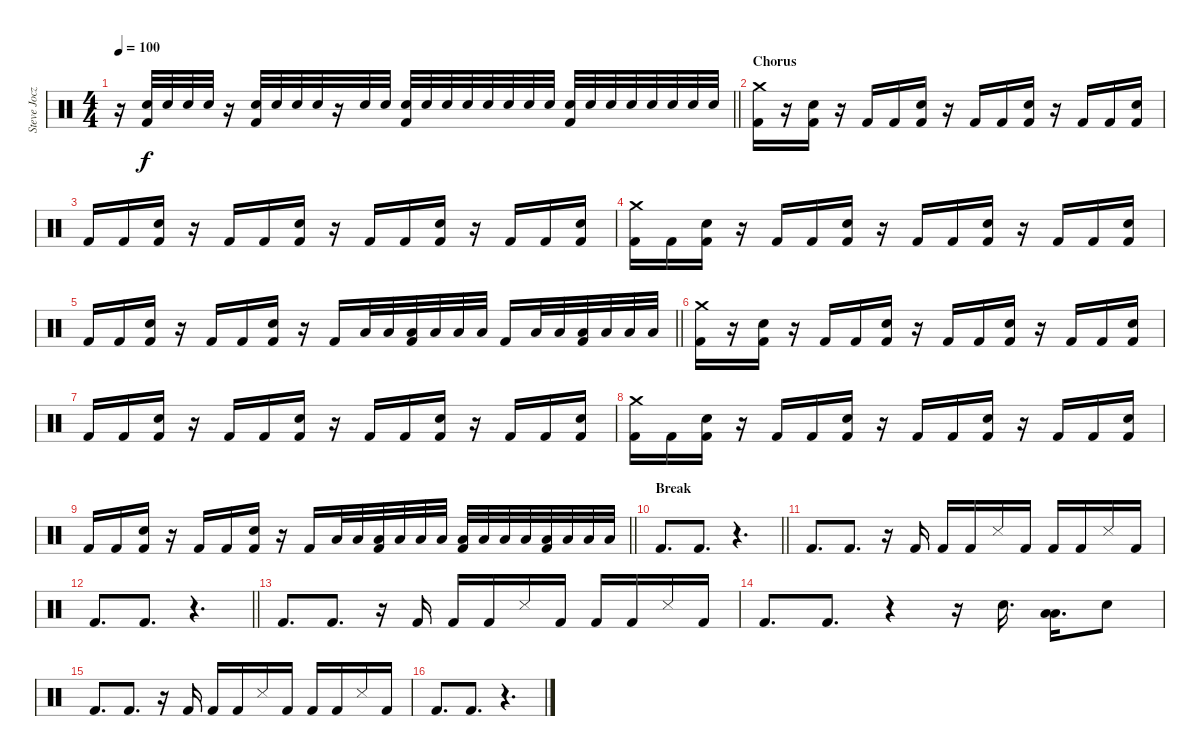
\track ("Steve Jocz" "Steve Jocz") {instrument percussion}
\staff {score}
\articulation defaults
\ts (4 4)
\tempo 100
\clef neutral
\barLineRight lightlight
\ks c
r.16{dy f} ("Snare (hit) 2" "Kick (hit) 2").32 "Snare (hit) 2".32 "Snare (hit) 2".32 "Snare (hit) 2".32 r.16 ("Snare (hit) 2" "Kick (hit) 2").32 "Snare (hit) 2".32 "Snare (hit) 2".32 "Snare (hit) 2".32 r.16 "Snare (hit) 2".32 "Snare (hit) 2".32 ("Snare (hit) 2" "Kick (hit) 2").32 "Snare (hit) 2".32 "Snare (hit) 2".32 "Snare (hit) 2".32 "Snare (hit) 2".32 "Snare (hit) 2".32 "Snare (hit) 2".32 "Snare (hit) 2".32 ("Snare (hit) 2" "Kick (hit) 2").32 "Snare (hit) 2".32 "Snare (hit) 2".32 "Snare (hit) 2".32 "Snare (hit) 2".32 "Snare (hit) 2".32 "Snare (hit) 2".32 "Snare (hit) 2".32 |
\section ("" "Chorus")
("Crash medium (hit)" "Kick (hit) 2").16 r.16 ("Snare (hit) 2" "Kick (hit) 2").16 r.16 "Kick (hit) 2".16 "Kick (hit) 2".16 ("Snare (hit) 2" "Kick (hit) 2").16 r.16 "Kick (hit) 2".16 "Kick (hit) 2".16 ("Snare (hit) 2" "Kick (hit) 2").16 r.16 "Kick (hit) 2".16 "Kick (hit) 2".16 ("Snare (hit) 2" "Kick (hit) 2").16 |
"Kick (hit) 2".16 "Kick (hit) 2".16 ("Snare (hit) 2" "Kick (hit) 2").16 r.16 "Kick (hit) 2".16 "Kick (hit) 2".16 ("Snare (hit) 2" "Kick (hit) 2").16 r.16 "Kick (hit) 2".16 "Kick (hit) 2".16 ("Snare (hit) 2" "Kick (hit) 2").16 r.16 "Kick (hit) 2".16 "Kick (hit) 2".16 ("Snare (hit) 2" "Kick (hit) 2").16 |
("Crash medium (hit)" "Kick (hit) 2").16 "Kick (hit) 2".16 ("Snare (hit) 2" "Kick (hit) 2").16 r.16 "Kick (hit) 2".16 "Kick (hit) 2".16 ("Snare (hit) 2" "Kick (hit) 2").16 r.16 "Kick (hit) 2".16 "Kick (hit) 2".16 ("Snare (hit) 2" "Kick (hit) 2").16 r.16 "Kick (hit) 2".16 "Kick (hit) 2".16 ("Snare (hit) 2" "Kick (hit) 2").16 |
\barLineRight lightlight "Kick (hit) 2".16 "Kick (hit) 2".16
("Snare (hit) 2" "Kick (hit) 2").16 r.16 "Kick (hit) 2".16 "Kick (hit) 2".16 ("Snare (hit) 2" "Kick (hit) 2").16 r.16 "Kick (hit) 2".16 "Low Tom (hit)".32 "Low Tom (hit)".32 ("Low Tom (hit)" "Kick (hit) 2").32 "Low Tom (hit)".32 "Low Tom (hit)".32 "Low Tom (hit)".32 "Kick (hit) 2".16 "Low Tom (hit)".32 "Low Tom (hit)".32 ("Low Tom (hit)" "Kick (hit) 2").32 "Low Tom (hit)".32 "Low Tom (hit)".32 "Low Tom (hit)".32 |
("Crash medium (hit)" "Kick (hit) 2").16 r.16 ("Snare (hit) 2" "Kick (hit) 2").16 r.16 "Kick (hit) 2".16 "Kick (hit) 2".16 ("Snare (hit) 2" "Kick (hit) 2").16 r.16 "Kick (hit) 2".16 "Kick (hit) 2".16 ("Snare (hit) 2" "Kick (hit) 2").16 r.16 "Kick (hit) 2".16 "Kick (hit) 2".16 ("Snare (hit) 2" "Kick (hit) 2").16 |
"Kick (hit) 2".16 "Kick (hit) 2".16 ("Snare (hit) 2" "Kick (hit) 2").16 r.16 "Kick (hit) 2".16 "Kick (hit) 2".16 ("Snare (hit) 2" "Kick (hit) 2").16 r.16 "Kick (hit) 2".16 "Kick (hit) 2".16 ("Snare (hit) 2" "Kick (hit) 2").16 r.16 "Kick (hit) 2".16 "Kick (hit) 2".16 ("Snare (hit) 2" "Kick (hit) 2").16 |
("Crash medium (hit)" "Kick (hit) 2").16 "Kick (hit) 2".16 ("Snare (hit) 2" "Kick (hit) 2").16 r.16 "Kick (hit) 2".16 "Kick (hit) 2".16 ("Snare (hit) 2" "Kick (hit) 2").16 r.16 "Kick (hit) 2".16 "Kick (hit) 2".16 ("Snare (hit) 2" "Kick (hit) 2").16 r.16 "Kick (hit) 2".16 "Kick (hit) 2".16 ("Snare (hit) 2" "Kick (hit) 2").16 |
\barLineRight lightlight "Kick (hit) 2".16 "Kick (hit) 2".16
("Snare (hit) 2" "Kick (hit) 2").16 r.16 "Kick (hit) 2".16 "Kick (hit) 2".16 ("Snare (hit) 2" "Kick (hit) 2").16 r.16 "Kick (hit) 2".16 "Low Tom (hit)".32 "Low Tom (hit)".32 ("Low Tom (hit)" "Kick (hit) 2").32 "Low Tom (hit)".32 "Low Tom (hit)".32 "Low Tom (hit)".32 ("Low Floor Tom (hit)" "Kick (hit) 2").32 "Low Floor Tom (hit)".32 "Low Floor Tom (hit)".32 "Low Floor Tom (hit)".32 ("Low Floor Tom (hit)" "Kick (hit) 2").32 "Low Floor Tom (hit)".32 "Low Floor Tom (hit)".32 "Low Floor Tom (hit)".32 |
\section ("" "Break")
\barLineRight lightlight "Kick (hit) 2".8{d} "Kick (hit) 2".8{d}
r.4{d} |
"Kick (hit) 2".8{d} "Kick (hit) 2".8{d} r.16 "Kick (hit) 2".16 "Kick (hit) 2".16 "Kick (hit) 2".16 "Snare (side stick) 3".16 "Kick (hit) 2".16 "Kick (hit) 2".16 "Kick (hit) 2".16 "Snare (side stick) 3".16 "Kick (hit) 2".16 |
\barLineRight lightlight "Kick (hit) 2".8{d} "Kick (hit) 2".8{d}
r.4{d} |
"Kick (hit) 2".8{d} "Kick (hit) 2".8{d} r.16 "Kick (hit) 2".16 "Kick (hit) 2".16 "Kick (hit) 2".16 "Snare (side stick) 3".16 "Kick (hit) 2".16 "Kick (hit) 2".16 "Kick (hit) 2".16 "Snare (side stick) 3".16 "Kick (hit) 2".16 |
"Kick (hit) 2".8{d} "Kick (hit) 2".8{d} r.4 r.16 "Snare (hit) 2".16{d} ("Low Tom (hit)" "Low Floor Tom (hit)").16{d} "Snare (hit) 2".8 |
"Kick (hit) 2".8{d} "Kick (hit) 2".8{d} r.16 "Kick (hit) 2".16 "Kick (hit) 2".16 "Kick (hit) 2".16 "Snare (side stick) 3".16 "Kick (hit) 2".16 "Kick (hit) 2".16 "Kick (hit) 2".16 "Snare (side stick) 3".16 "Kick (hit) 2".16 |
"Kick (hit) 2".8{d} "Kick (hit) 2".8{d} r.4{d}
